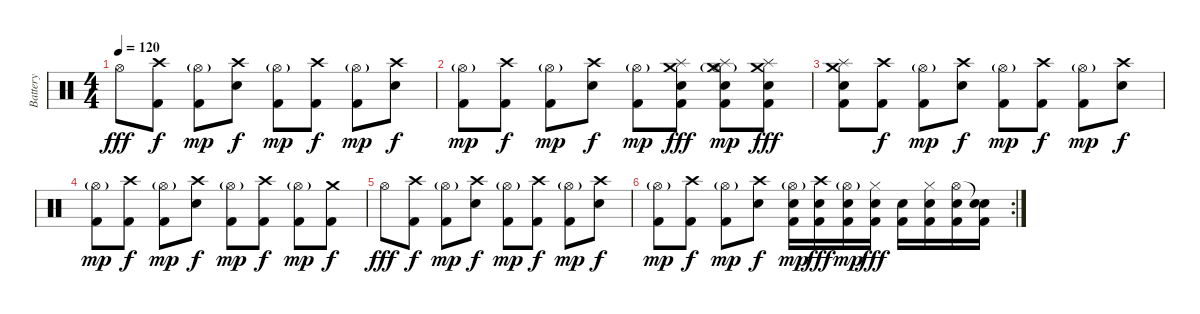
\track ("Battery" "Battery") {instrument percussion}
\staff {score}
\articulation defaults
\ts (4 4)
\tempo 120
\clef neutral
\ks c "Hi-Hat (open)".8{dy fff}
("Crash high (hit)" "Kick (hit) 2").8{dy f} ("Hi-Hat (open)"{g} "Kick (hit) 2").8{dy mp} ("Crash high (hit)" "Snare (hit) 2").8{dy f} ("Hi-Hat (open)"{g} "Kick (hit) 2").8{dy mp} ("Crash high (hit)" "Kick (hit) 2").8{dy f} ("Hi-Hat (open)"{g} "Kick (hit) 2").8{dy mp} ("Crash high (hit)" "Snare (hit) 2").8{dy f} |
("Hi-Hat (open)"{g} "Kick (hit) 2").8{dy mp} ("Crash high (hit)" "Kick (hit) 2").8{dy f} ("Hi-Hat (open)"{g} "Kick (hit) 2").8{dy mp} ("Crash high (hit)" "Snare (hit) 2").8{dy f} ("Hi-Hat (open)"{g} "Kick (hit) 2").8{dy mp} ("Splash (hit)" "Crash medium (hit)" "Kick (hit) 2" "Electric Snare (hit)").8{dy fff} ("Splash (hit)" "Crash medium (hit)" "Kick (hit) 2" "Hi-Hat (open)"{g} "Electric Snare (hit)").8{dy mp} ("Splash (hit)" "Crash medium (hit)" "Kick (hit) 2" "Electric Snare (hit)").8{dy fff} |
("Splash (hit)" "Crash medium (hit)" "Kick (hit) 2" "Electric Snare (hit)").8 ("Crash high (hit)" "Kick (hit) 2").8{dy f} ("Hi-Hat (open)"{g} "Kick (hit) 2").8{dy mp} ("Crash high (hit)" "Snare (hit) 2").8{dy f} ("Hi-Hat (open)"{g} "Kick (hit) 2").8{dy mp} ("Crash high (hit)" "Kick (hit) 2").8{dy f} ("Hi-Hat (open)"{g} "Kick (hit) 2").8{dy mp} ("Crash high (hit)" "Snare (hit) 2").8{dy f} |
("Hi-Hat (open)"{g} "Kick (hit) 2").8{dy mp} ("Crash high (hit)" "Kick (hit) 2").8{dy f} ("Hi-Hat (open)"{g} "Kick (hit) 2").8{dy mp} ("Crash high (hit)" "Snare (hit) 2").8{dy f} ("Hi-Hat (open)"{g} "Kick (hit) 2").8{dy mp} ("Crash high (hit)" "Kick (hit) 2").8{dy f} ("Hi-Hat (open)"{g} "Kick (hit) 2").8{dy mp} ("Crash medium (hit)" "Kick (hit) 2").8{dy f} |
"Hi-Hat (open)".8{dy fff} ("Crash high (hit)" "Kick (hit) 2").8{dy f} ("Hi-Hat (open)"{g} "Kick (hit) 2").8{dy mp} ("Crash high (hit)" "Snare (hit) 2").8{dy f} ("Hi-Hat (open)"{g} "Kick (hit) 2").8{dy mp} ("Crash high (hit)" "Kick (hit) 2").8{dy f} ("Hi-Hat (open)"{g} "Kick (hit) 2").8{dy mp} ("Crash high (hit)" "Snare (hit) 2").8{dy f} |
\rc 2
("Hi-Hat (open)"{g} "Kick (hit) 2").8{dy mp} ("Crash high (hit)" "Kick (hit) 2").8{dy f} ("Hi-Hat (open)"{g} "Kick (hit) 2").8{dy mp} ("Crash high (hit)" "Snare (hit) 2").8{dy f} ("Electric Snare (hit)" "Hi-Hat (open)"{g} "Kick (hit) 2").16{dy mp} ("Crash high (hit)" "Electric Snare (hit)" "Kick (hit) 2").16{dy fff} ("Electric Snare (hit)" "Hi-Hat (open)"{g} "Kick (hit) 2").16{dy mp} ("Hi-Hat (closed)" "Electric Snare (hit)" "Kick (hit) 2").16{dy fff} ("Electric Snare (hit)" "Kick (hit) 2").16 ("Hi-Hat (closed)" "Electric Snare (hit)" "Kick (hit) 2").16 ("Hi-Hat (open)" "Electric Snare (hit)" "Kick (hit) 2").16 ("Snare (hit)"{t} "Electric Snare (hit)" "Kick (hit) 2").16
